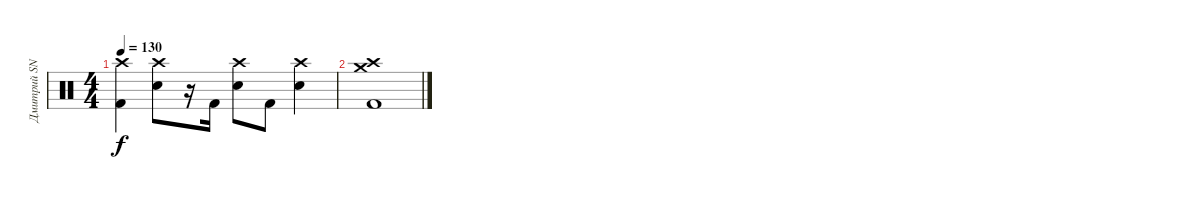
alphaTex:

\track ("Дмитрий SNAKE Хакимов" "Дмитрий SN") {instrument percussion}
\staff {score}
\articulation defaults
\ts (4 4)
\tempo 130
\clef neutral
\ks c
("Crash high (hit)" "Kick (hit) 2").4{dy f} ("Crash high (hit)" "Snare (hit) 2").8 r.16 "Kick (hit) 2".16 ("Crash high (hit)" "Snare (hit) 2").8 "Kick (hit) 2".8 ("Crash high (hit)" "Snare (hit) 2").4 |
("Crash high (hit)" "Crash medium (hit)" "Kick (hit) 2").1
